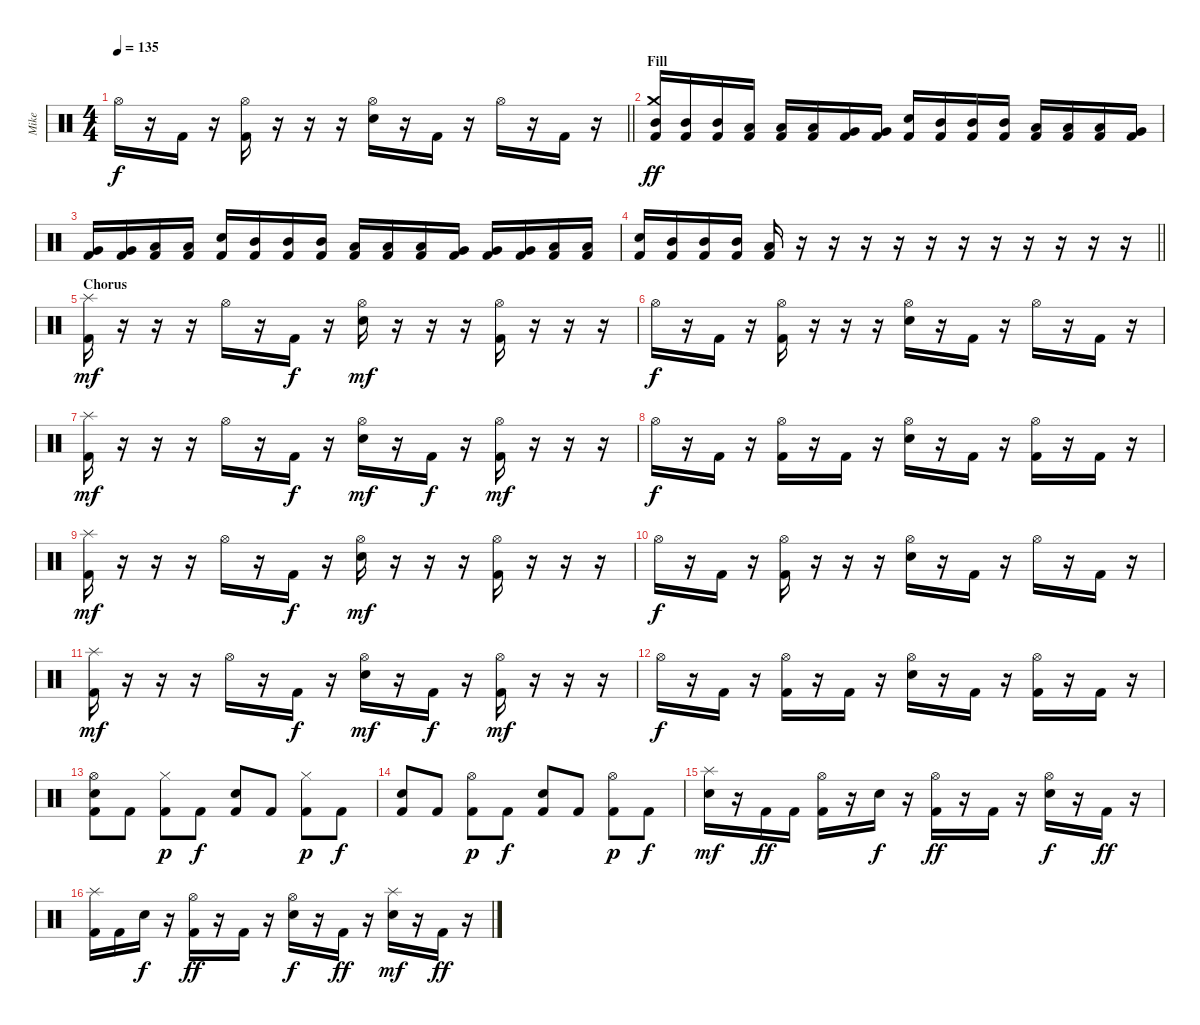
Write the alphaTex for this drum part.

\track ("Mike" "Mike") {instrument percussion}
\staff {score}
\articulation defaults
\ts (4 4)
\tempo 135
\clef neutral
\barLineRight lightlight
\ks c "Hi-Hat (open)".16{dy f}
r.16 "Kick (hit) 2".16 r.16 ("Hi-Hat (open)" "Kick (hit) 2").16 r.16 r.16 r.16 ("Hi-Hat (open)" "Snare (hit) 2").16 r.16 "Kick (hit) 2".16 r.16 "Hi-Hat (open)".16 r.16 "Kick (hit) 2".16 r.16 |
\section ("" "Fill")
("Crash medium (hit)" "Mid Tom (hit)" "Kick (hit) 2").16{dy ff} ("Mid Tom (hit)" "Kick (hit) 2").16 ("Mid Tom (hit)" "Kick (hit) 2").16 ("Low Tom (hit)" "Kick (hit) 2").16 ("Low Tom (hit)" "Kick (hit) 2").16 ("Low Tom (hit)" "Kick (hit) 2").16 ("Very Low Tom (hit)" "Kick (hit) 2").16 ("Very Low Tom (hit)" "Kick (hit) 2").16 ("Snare (hit) 2" "Kick (hit) 2").16 ("Mid Tom (hit)" "Kick (hit) 2").16 ("Mid Tom (hit)" "Kick (hit) 2").16 ("Mid Tom (hit)" "Kick (hit) 2").16 ("Low Tom (hit)" "Kick (hit) 2").16 ("Low Tom (hit)" "Kick (hit) 2").16 ("Low Tom (hit)" "Kick (hit) 2").16 ("Very Low Tom (hit)" "Kick (hit) 2").16 |
("Very Low Tom (hit)" "Kick (hit) 2").16 ("Very Low Tom (hit)" "Kick (hit) 2").16 ("Low Floor Tom (hit)" "Kick (hit) 2").16 ("Low Floor Tom (hit)" "Kick (hit) 2").16 ("Snare (hit) 2" "Kick (hit) 2").16 ("Mid Tom (hit)" "Kick (hit) 2").16 ("Mid Tom (hit)" "Kick (hit) 2").16 ("Mid Tom (hit)" "Kick (hit) 2").16 ("Low Tom (hit)" "Kick (hit) 2").16 ("Low Tom (hit)" "Kick (hit) 2").16 ("Low Tom (hit)" "Kick (hit) 2").16 ("Very Low Tom (hit)" "Kick (hit) 2").16 ("Very Low Tom (hit)" "Kick (hit) 2").16 ("Very Low Tom (hit)" "Kick (hit) 2").16 ("Low Floor Tom (hit)" "Kick (hit) 2").16 ("Low Floor Tom (hit)" "Kick (hit) 2").16 |
\barLineRight lightlight
("Snare (hit) 2" "Kick (hit) 2").16 ("Mid Tom (hit)" "Kick (hit) 2").16 ("Mid Tom (hit)" "Kick (hit) 2").16 ("Mid Tom (hit)" "Kick (hit) 2").16 ("Low Tom (hit)" "Kick (hit) 2").16 r.16 r.16 r.16 r.16 r.16 r.16 r.16 r.16 r.16 r.16 r.16 |
\section ("" "Chorus")
("Splash (hit)" "Kick (hit) 2").16{dy mf} r.16 r.16 r.16 "Hi-Hat (open)".16 r.16 "Kick (hit) 2".16{dy f} r.16 ("Hi-Hat (open)" "Snare (hit) 2").16{dy mf} r.16 r.16 r.16 ("Hi-Hat (open)" "Kick (hit) 2").16 r.16 r.16 r.16 |
"Hi-Hat (open)".16{dy f} r.16 "Kick (hit) 2".16 r.16 ("Hi-Hat (open)" "Kick (hit) 2").16 r.16 r.16 r.16 ("Hi-Hat (open)" "Snare (hit) 2").16 r.16 "Kick (hit) 2".16 r.16 "Hi-Hat (open)".16 r.16 "Kick (hit) 2".16 r.16 |
("Splash (hit)" "Kick (hit) 2").16{dy mf} r.16 r.16 r.16 "Hi-Hat (open)".16 r.16 "Kick (hit) 2".16{dy f} r.16 ("Hi-Hat (open)" "Snare (hit) 2").16{dy mf} r.16 "Kick (hit) 2".16{dy f} r.16 ("Hi-Hat (open)" "Kick (hit) 2").16{dy mf} r.16 r.16 r.16 |
"Hi-Hat (open)".16{dy f} r.16 "Kick (hit) 2".16 r.16 ("Hi-Hat (open)" "Kick (hit) 2").16 r.16 "Kick (hit) 2".16 r.16 ("Hi-Hat (open)" "Snare (hit) 2").16 r.16 "Kick (hit) 2".16 r.16 ("Hi-Hat (open)" "Kick (hit) 2").16 r.16 "Kick (hit) 2".16 r.16 |
("Splash (hit)" "Kick (hit) 2").16{dy mf} r.16 r.16 r.16 "Hi-Hat (open)".16 r.16 "Kick (hit) 2".16{dy f} r.16 ("Hi-Hat (open)" "Snare (hit) 2").16{dy mf} r.16 r.16 r.16 ("Hi-Hat (open)" "Kick (hit) 2").16 r.16 r.16 r.16 |
"Hi-Hat (open)".16{dy f} r.16 "Kick (hit) 2".16 r.16 ("Hi-Hat (open)" "Kick (hit) 2").16 r.16 r.16 r.16 ("Hi-Hat (open)" "Snare (hit) 2").16 r.16 "Kick (hit) 2".16 r.16 "Hi-Hat (open)".16 r.16 "Kick (hit) 2".16 r.16 |
("Splash (hit)" "Kick (hit) 2").16{dy mf} r.16 r.16 r.16 "Hi-Hat (open)".16 r.16 "Kick (hit) 2".16{dy f} r.16 ("Hi-Hat (open)" "Snare (hit) 2").16{dy mf} r.16 "Kick (hit) 2".16{dy f} r.16 ("Hi-Hat (open)" "Kick (hit) 2").16{dy mf} r.16 r.16 r.16 |
"Hi-Hat (open)".16{dy f} r.16 "Kick (hit) 2".16 r.16 ("Hi-Hat (open)" "Kick (hit) 2").16 r.16 "Kick (hit) 2".16 r.16 ("Hi-Hat (open)" "Snare (hit) 2").16 r.16 "Kick (hit) 2".16 r.16 ("Hi-Hat (open)" "Kick (hit) 2").16 r.16 "Kick (hit) 2".16 r.16 |
("Hi-Hat (open)" "Snare (hit) 2" "Kick (hit) 2").8 "Kick (hit) 2".8 ("Hi-Hat (closed)" "Kick (hit) 2").8{dy p} "Kick (hit) 2".8{dy f} ("Snare (hit) 2" "Kick (hit) 2").8 "Kick (hit) 2".8 ("Hi-Hat (closed)" "Kick (hit) 2").8{dy p} "Kick (hit) 2".8{dy f} |
("Snare (hit) 2" "Kick (hit) 2").8 "Kick (hit) 2".8 ("Hi-Hat (open)" "Kick (hit) 2").8{dy p} "Kick (hit) 2".8{dy f} ("Snare (hit) 2" "Kick (hit) 2").8 "Kick (hit) 2".8 ("Hi-Hat (open)" "Kick (hit) 2").8{dy p} "Kick (hit) 2".8{dy f} |
("Splash (hit)" "Snare (hit) 2").16{dy mf} r.16 "Kick (hit) 2".16{dy ff} "Kick (hit) 2".16 ("Hi-Hat (open)" "Kick (hit) 2").16 r.16 "Snare (hit) 2".16{dy f} r.16 ("Hi-Hat (open)" "Kick (hit) 2").16{dy ff} r.16 "Kick (hit) 2".16 r.16 ("Hi-Hat (open)" "Snare (hit) 2").16{dy f} r.16 "Kick (hit) 2".16{dy ff} r.16 |
("Splash (hit)" "Kick (hit) 2").16 "Kick (hit) 2".16 "Snare (hit) 2".16{dy f} r.16 ("Hi-Hat (open)" "Kick (hit) 2").16{dy ff} r.16 "Kick (hit) 2".16 r.16 ("Hi-Hat (open)" "Snare (hit) 2").16{dy f} r.16 "Kick (hit) 2".16{dy ff} r.16 ("Splash (hit)" "Snare (hit) 2").16{dy mf} r.16 "Kick (hit) 2".16{dy ff} r.16
